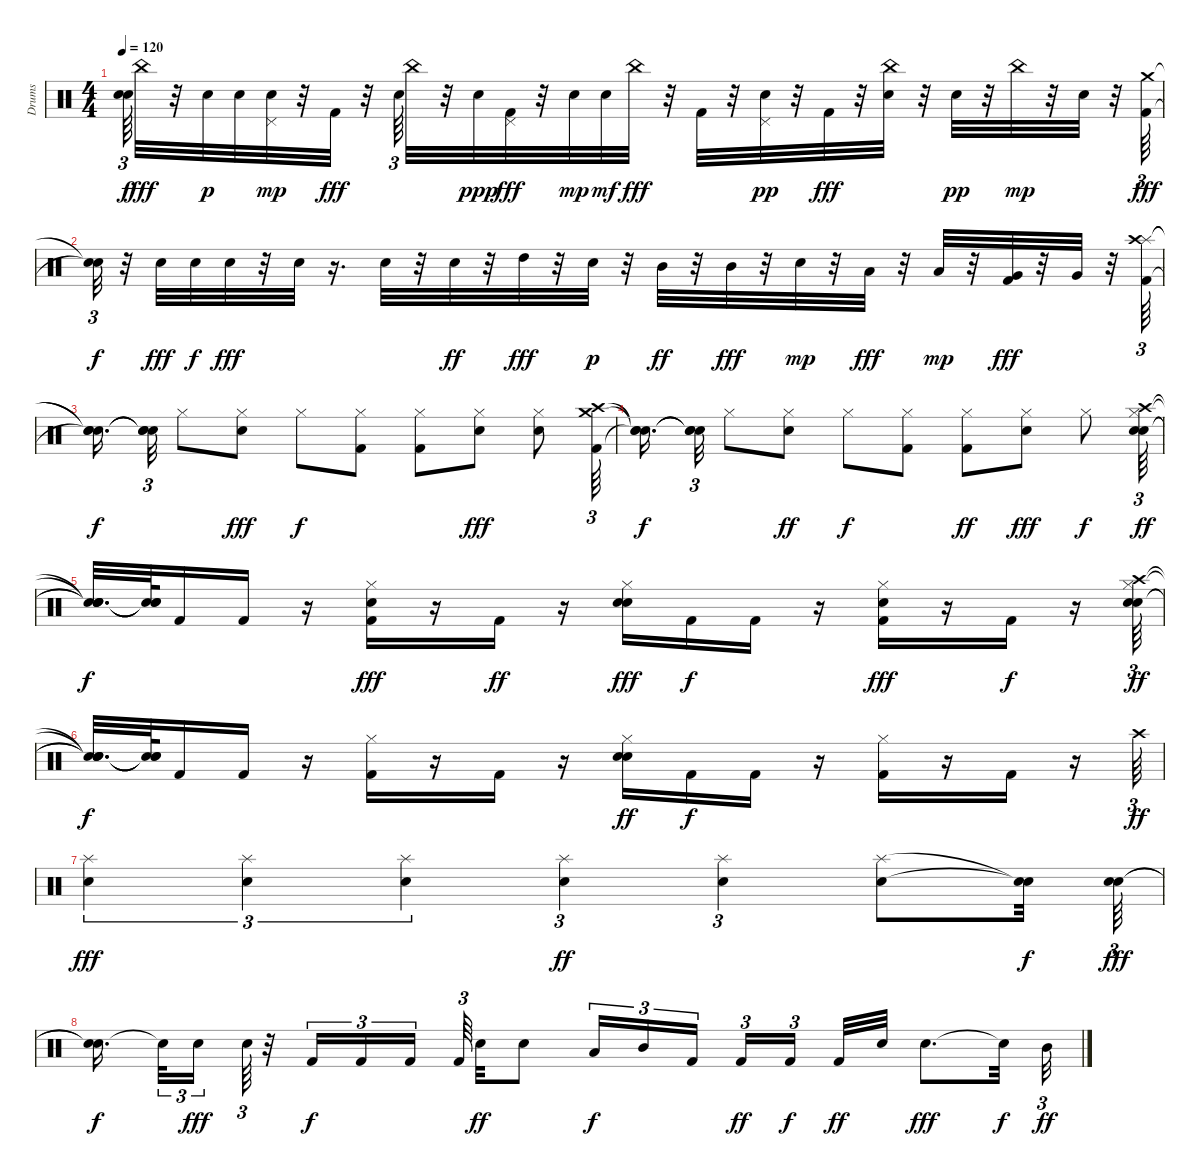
\track ("Drums" "Drums") {instrument percussion}
\staff {score}
\articulation defaults
\ts (4 4)
\tempo 120
\clef neutral
\ks c
("Snare (hit)"{t} "Snare (hit)"{t}).64{tu (3 2) dy f} "China (hit)".32{dy fff} r.32 "Snare (hit) 2".32{dy p} "Snare (hit) 2".32 ("Snare (hit) 2" "Pedal Hi-Hat (hit)").32{dy mp} r.32 "Kick (hit) 2".32{dy fff} r.32 "Snare (hit) 2".64{tu (3 2)} "China (hit)".32 r.32 "Snare (hit) 2".32{dy ppp} ("Pedal Hi-Hat (hit)" "Kick (hit) 2").32{dy fff} r.32 "Snare (hit) 2".32{dy mp} "Snare (hit) 2".32{dy mf} "China (hit)".32{dy fff} r.32 "Kick (hit) 2".32 r.32 ("Pedal Hi-Hat (hit)" "Snare (hit) 2").32{dy pp} r.32 "Kick (hit) 2".32{dy fff} r.32 ("Snare (hit) 2" "China (hit)").32 r.32 "Snare (hit) 2".32{dy pp} r.32 "China (hit)".32{dy mp} r.32 "Snare (hit) 2".32 r.32 ("Crash medium (hit)" "Kick (hit) 2").64{tu (3 2) dy fff} |
("Snare (hit)"{t} "Snare (hit)"{t}).32{tu (3 2) dy f} r.32 "Snare (hit) 2".32{dy fff} "Snare (hit) 2".32{dy f} "Snare (hit) 2".32{dy fff} r.32 "Snare (hit) 2".32 r.16{d} "Snare (hit) 2".32 r.32 "Snare (hit) 2".32{dy ff} r.32 "High Tom (hit)".32{dy fff} r.32 "Snare (hit) 2".32{dy p} r.32 "Mid Tom (hit)".32{dy ff} r.32 "Mid Tom (hit)".32{dy fff} r.32 "Snare (hit) 2".32{dy mp} r.32 "Low Tom (hit)".32{dy fff} r.32 "Low Tom (hit)".32{dy mp} r.32 ("Kick (hit) 2" "Very Low Tom (hit)").32{dy fff} r.32 "Very Low Tom (hit)".32 r.32 ("Splash (hit)" "Kick (hit) 2" "Crash high (hit)").64{tu (3 2)} |
("Snare (hit)"{t} "Snare (hit)"{t} "Snare (hit)"{t}).16{d dy f beam splitsecondary} ("Snare (hit)"{t} "Snare (hit)"{t} "Snare (hit)"{t}).32{tu (3 2)} "Hi-Hat (closed)".8 ("Snare (hit) 2" "Hi-Hat (closed)").8{dy fff} "Hi-Hat (closed)".8{dy f} ("Hi-Hat (closed)" "Kick (hit) 2").8 ("Hi-Hat (closed)" "Kick (hit) 2").8 ("Hi-Hat (closed)" "Snare (hit) 2").8{dy fff} ("Hi-Hat (closed)" "Snare (hit) 2").8 ("Crash high (hit)" "Kick (hit) 2" "Crash medium (hit)").64{tu (3 2)} |
("Snare (hit)"{t} "Snare (hit)"{t} "Snare (hit)"{t}).16{d dy f beam splitsecondary} ("Snare (hit)"{t} "Snare (hit)"{t} "Snare (hit)"{t}).32{tu (3 2)} "Hi-Hat (closed)".8 ("Snare (hit) 2" "Hi-Hat (closed)").8{dy ff} "Hi-Hat (closed)".8{dy f} ("Kick (hit) 2" "Hi-Hat (closed)").8 ("Kick (hit) 2" "Hi-Hat (closed)").8{dy ff} ("Snare (hit) 2" "Hi-Hat (closed)").8{dy fff} "Hi-Hat (closed)".8{dy f} ("Crash high (hit)" "Snare (hit) 2" "Hi-Hat (closed)" "Snare (hit) 2").64{tu (3 2) dy ff} |
("Snare (hit)"{t} "Snare (hit)"{t} "Snare (hit)"{t} "Snare (hit)"{t}).32{d dy f} ("Snare (hit)"{t} "Snare (hit)"{t} "Snare (hit)"{t}).64 "Kick (hit) 2".16 "Kick (hit) 2".16 r.16 ("Snare (hit) 2" "Kick (hit) 2" "Hi-Hat (closed)").16{dy fff} r.16 "Kick (hit) 2".16{dy ff} r.16 ("Snare (hit) 2" "Hi-Hat (closed)" "Snare (hit) 2").16{dy fff} "Kick (hit) 2".16{dy f} "Kick (hit) 2".16 r.16 ("Hi-Hat (closed)" "Kick (hit) 2" "Snare (hit) 2").16{dy fff} r.16 "Kick (hit) 2".16{dy f} r.16 ("Snare (hit) 2" "Hi-Hat (closed)" "Snare (hit) 2" "Crash high (hit)").64{tu (3 2) dy ff} |
("Snare (hit)"{t} "Snare (hit)"{t} "Snare (hit)"{t} "Snare (hit)"{t}).32{d dy f} ("Snare (hit)"{t} "Snare (hit)"{t} "Snare (hit)"{t}).64 "Kick (hit) 2".16 "Kick (hit) 2".16 r.16 ("Kick (hit) 2" "Hi-Hat (closed)").16 r.16 "Kick (hit) 2".16 r.16 ("Snare (hit) 2" "Hi-Hat (closed)" "Snare (hit) 2").16{dy ff} "Kick (hit) 2".16{dy f} "Kick (hit) 2".16 r.16 ("Hi-Hat (closed)" "Kick (hit) 2").16 r.16 "Kick (hit) 2".16 r.16 "Crash high (hit)".64{tu (3 2) dy ff} |
("Snare (hit) 2" "Splash (hit)").4{tu (3 2) dy fff} ("Snare (hit) 2" "Splash (hit)").4{tu (3 2)} ("Snare (hit) 2" "Splash (hit)").4{tu (3 2)} ("Snare (hit) 2" "Splash (hit)").4{tu (3 2) dy ff} ("Snare (hit) 2" "Splash (hit)").4{tu (3 2)} ("Splash (hit)" "Snare (hit) 2").8 ("Snare (hit)"{t} "Snare (hit)"{t}).32{dy f} ("Snare (hit) 2" "Snare (hit) 2").64{tu (3 2) dy fff} |
("Snare (hit)"{t} "Snare (hit)"{t}).16{d dy f beam splitsecondary} "Snare (hit)"{t}.32{tu (3 2)} "Snare (hit) 2".16{tu (3 2) dy fff beam splitsecondary} "Snare (hit) 2".64{tu (3 2)} r.32 "Kick (hit) 2".16{tu (3 2) dy f} "Kick (hit) 2".16{tu (3 2)} "Kick (hit) 2".16{tu (3 2) beam splitsecondary} "Kick (hit) 2".64{tu (3 2) beam splitsecondary} "Snare (hit) 2".32{dy ff} "Snare (hit) 2".8 "Low Tom (hit)".16{tu (3 2) dy f} "Mid Tom (hit)".16{tu (3 2)} "Kick (hit) 2".16{tu (3 2) beam splitsecondary} "Kick (hit) 2".16{tu (3 2) dy ff} "Kick (hit) 2".16{tu (3 2) dy f beam splitsecondary} "Kick (hit) 2".32{dy ff} "Snare (hit) 2".32 "Snare (hit) 2".8{d dy fff} "Snare (hit)"{t}.32{dy f} "Mid Tom (hit)".32{tu (3 2) dy ff}
